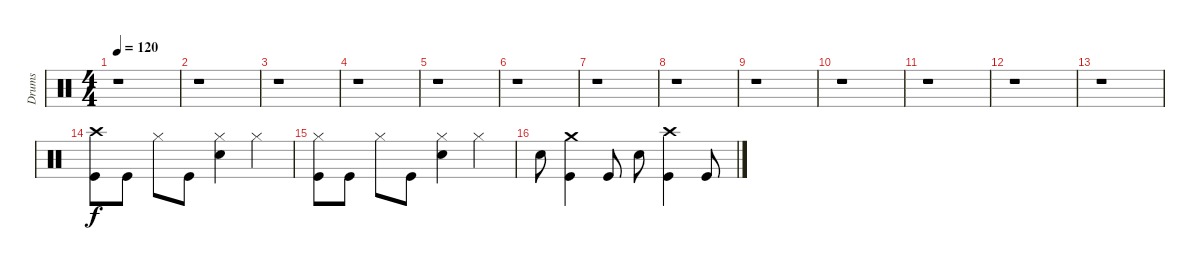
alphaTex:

\track ("Drums" "Drums") {instrument percussion}
\staff {score}
\articulation defaults
\ts (4 4)
\tempo 120
\clef neutral
\ks c
r.1{dy f} |
r.1 |
r.1 |
r.1 |
r.1 |
r.1 |
r.1 |
r.1 |
r.1 |
r.1 |
r.1 |
r.1 |
r.1 |
("Kick (hit)" "Crash high (hit)").8 "Kick (hit)".8 "Hi-Hat (closed)".8 "Kick (hit)".8 ("Snare (hit) 2" "Hi-Hat (closed)").4 "Hi-Hat (closed)".4 |
("Kick (hit)" "Hi-Hat (closed)").8 "Kick (hit)".8 "Hi-Hat (closed)".8 "Kick (hit)".8 ("Snare (hit) 2" "Hi-Hat (closed)").4 "Hi-Hat (closed)".4 |
"Snare (hit) 2".8 ("Kick (hit)" "Crash medium (hit)").4 "Kick (hit)".8 "Snare (hit) 2".8 ("Kick (hit)" "Crash high (hit)").4 "Kick (hit)".8
